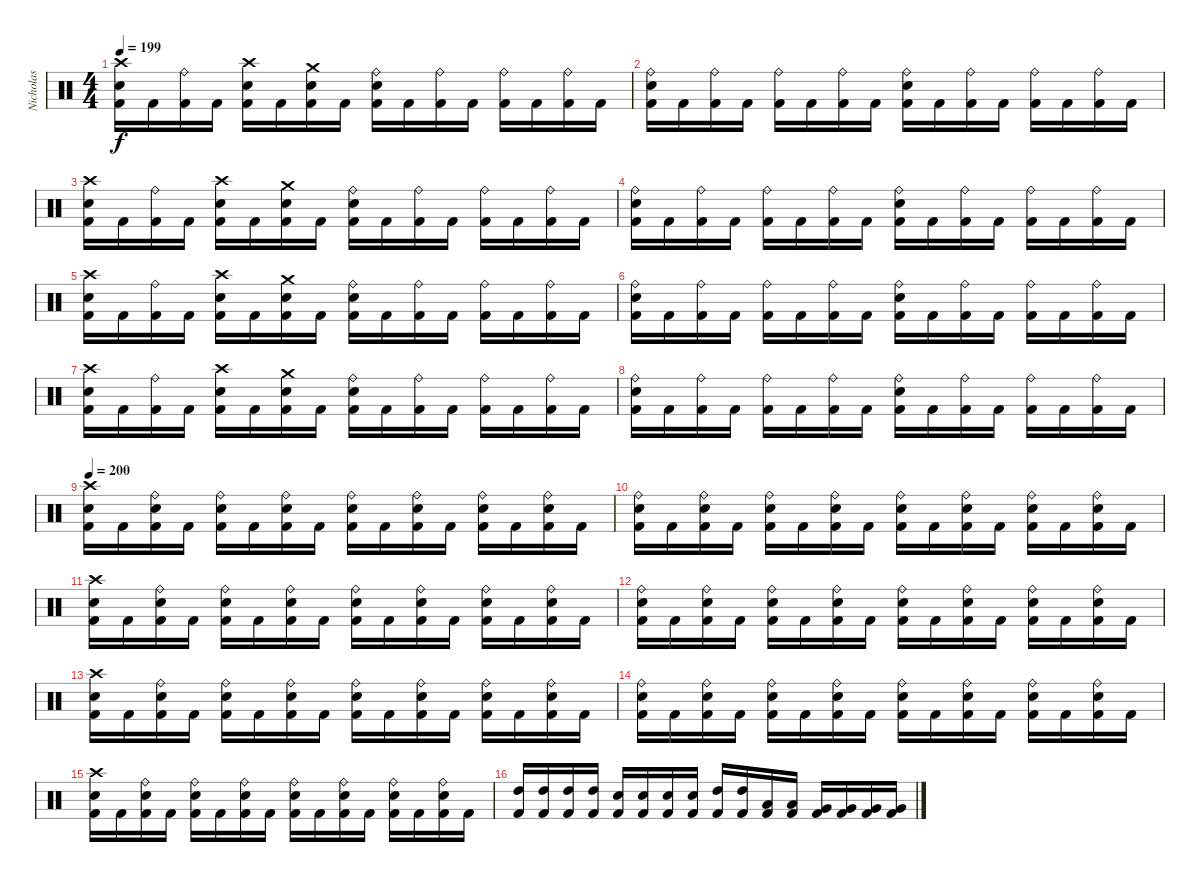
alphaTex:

\track ("Nicholas" "Nicholas") {instrument percussion}
\staff {score}
\articulation defaults
\ts (4 4)
\tempo 199
\clef neutral
\ks c
("Crash high (hit)" "Electric Snare (hit)" "Kick (hit) 2").16{dy f} "Kick (hit) 2".16 ("Ride (bell)" "Kick (hit) 2").16 "Kick (hit) 2".16 ("Crash high (hit)" "Electric Snare (hit)" "Kick (hit) 2").16 "Kick (hit) 2".16 ("Crash medium (hit)" "Electric Snare (hit)" "Kick (hit) 2").16 "Kick (hit) 2".16 ("Ride (bell)" "Electric Snare (hit)" "Kick (hit) 2").16 "Kick (hit) 2".16 ("Ride (bell)" "Kick (hit) 2").16 "Kick (hit) 2".16 ("Ride (bell)" "Kick (hit) 2").16 "Kick (hit) 2".16 ("Ride (bell)" "Kick (hit) 2").16 "Kick (hit) 2".16 |
("Ride (bell)" "Electric Snare (hit)" "Kick (hit) 2").16 "Kick (hit) 2".16 ("Ride (bell)" "Kick (hit) 2").16 "Kick (hit) 2".16 ("Ride (bell)" "Kick (hit) 2").16 "Kick (hit) 2".16 ("Ride (bell)" "Kick (hit) 2").16 "Kick (hit) 2".16 ("Ride (bell)" "Electric Snare (hit)" "Kick (hit) 2").16 "Kick (hit) 2".16 ("Ride (bell)" "Kick (hit) 2").16 "Kick (hit) 2".16 ("Ride (bell)" "Kick (hit) 2").16 "Kick (hit) 2".16 ("Ride (bell)" "Kick (hit) 2").16 "Kick (hit) 2".16 |
("Crash high (hit)" "Electric Snare (hit)" "Kick (hit) 2").16 "Kick (hit) 2".16 ("Ride (bell)" "Kick (hit) 2").16 "Kick (hit) 2".16 ("Crash high (hit)" "Electric Snare (hit)" "Kick (hit) 2").16 "Kick (hit) 2".16 ("Crash medium (hit)" "Electric Snare (hit)" "Kick (hit) 2").16 "Kick (hit) 2".16 ("Ride (bell)" "Electric Snare (hit)" "Kick (hit) 2").16 "Kick (hit) 2".16 ("Ride (bell)" "Kick (hit) 2").16 "Kick (hit) 2".16 ("Ride (bell)" "Kick (hit) 2").16 "Kick (hit) 2".16 ("Ride (bell)" "Kick (hit) 2").16 "Kick (hit) 2".16 |
("Ride (bell)" "Electric Snare (hit)" "Kick (hit) 2").16 "Kick (hit) 2".16 ("Ride (bell)" "Kick (hit) 2").16 "Kick (hit) 2".16 ("Ride (bell)" "Kick (hit) 2").16 "Kick (hit) 2".16 ("Ride (bell)" "Kick (hit) 2").16 "Kick (hit) 2".16 ("Ride (bell)" "Electric Snare (hit)" "Kick (hit) 2").16 "Kick (hit) 2".16 ("Ride (bell)" "Kick (hit) 2").16 "Kick (hit) 2".16 ("Ride (bell)" "Kick (hit) 2").16 "Kick (hit) 2".16 ("Ride (bell)" "Kick (hit) 2").16 "Kick (hit) 2".16 |
("Crash high (hit)" "Electric Snare (hit)" "Kick (hit) 2").16 "Kick (hit) 2".16 ("Ride (bell)" "Kick (hit) 2").16 "Kick (hit) 2".16 ("Crash high (hit)" "Electric Snare (hit)" "Kick (hit) 2").16 "Kick (hit) 2".16 ("Crash medium (hit)" "Electric Snare (hit)" "Kick (hit) 2").16 "Kick (hit) 2".16 ("Ride (bell)" "Electric Snare (hit)" "Kick (hit) 2").16 "Kick (hit) 2".16 ("Ride (bell)" "Kick (hit) 2").16 "Kick (hit) 2".16 ("Ride (bell)" "Kick (hit) 2").16 "Kick (hit) 2".16 ("Ride (bell)" "Kick (hit) 2").16 "Kick (hit) 2".16 |
("Ride (bell)" "Electric Snare (hit)" "Kick (hit) 2").16 "Kick (hit) 2".16 ("Ride (bell)" "Kick (hit) 2").16 "Kick (hit) 2".16 ("Ride (bell)" "Kick (hit) 2").16 "Kick (hit) 2".16 ("Ride (bell)" "Kick (hit) 2").16 "Kick (hit) 2".16 ("Ride (bell)" "Electric Snare (hit)" "Kick (hit) 2").16 "Kick (hit) 2".16 ("Ride (bell)" "Kick (hit) 2").16 "Kick (hit) 2".16 ("Ride (bell)" "Kick (hit) 2").16 "Kick (hit) 2".16 ("Ride (bell)" "Kick (hit) 2").16 "Kick (hit) 2".16 |
("Crash high (hit)" "Electric Snare (hit)" "Kick (hit) 2").16 "Kick (hit) 2".16 ("Ride (bell)" "Kick (hit) 2").16 "Kick (hit) 2".16 ("Crash high (hit)" "Electric Snare (hit)" "Kick (hit) 2").16 "Kick (hit) 2".16 ("Crash medium (hit)" "Electric Snare (hit)" "Kick (hit) 2").16 "Kick (hit) 2".16 ("Ride (bell)" "Electric Snare (hit)" "Kick (hit) 2").16 "Kick (hit) 2".16 ("Ride (bell)" "Kick (hit) 2").16 "Kick (hit) 2".16 ("Ride (bell)" "Kick (hit) 2").16 "Kick (hit) 2".16 ("Ride (bell)" "Kick (hit) 2").16 "Kick (hit) 2".16 |
("Ride (bell)" "Electric Snare (hit)" "Kick (hit) 2").16 "Kick (hit) 2".16 ("Ride (bell)" "Kick (hit) 2").16 "Kick (hit) 2".16 ("Ride (bell)" "Kick (hit) 2").16 "Kick (hit) 2".16 ("Ride (bell)" "Kick (hit) 2").16 "Kick (hit) 2".16 ("Ride (bell)" "Electric Snare (hit)" "Kick (hit) 2").16 "Kick (hit) 2".16 ("Ride (bell)" "Kick (hit) 2").16 "Kick (hit) 2".16 ("Ride (bell)" "Kick (hit) 2").16 "Kick (hit) 2".16 ("Ride (bell)" "Kick (hit) 2").16 "Kick (hit) 2".16 |
\tempo 200
("Crash high (hit)" "Electric Snare (hit)" "Kick (hit) 2").16 "Kick (hit) 2".16 ("Ride (bell)" "Electric Snare (hit)" "Kick (hit) 2").16 "Kick (hit) 2".16 ("Ride (bell)" "Electric Snare (hit)" "Kick (hit) 2").16 "Kick (hit) 2".16 ("Ride (bell)" "Electric Snare (hit)" "Kick (hit) 2").16 "Kick (hit) 2".16 ("Ride (bell)" "Electric Snare (hit)" "Kick (hit) 2").16 "Kick (hit) 2".16 ("Ride (bell)" "Electric Snare (hit)" "Kick (hit) 2").16 "Kick (hit) 2".16 ("Ride (bell)" "Electric Snare (hit)" "Kick (hit) 2").16 "Kick (hit) 2".16 ("Ride (bell)" "Electric Snare (hit)" "Kick (hit) 2").16 "Kick (hit) 2".16 |
("Ride (bell)" "Electric Snare (hit)" "Kick (hit) 2").16 "Kick (hit) 2".16 ("Ride (bell)" "Electric Snare (hit)" "Kick (hit) 2").16 "Kick (hit) 2".16 ("Ride (bell)" "Electric Snare (hit)" "Kick (hit) 2").16 "Kick (hit) 2".16 ("Ride (bell)" "Electric Snare (hit)" "Kick (hit) 2").16 "Kick (hit) 2".16 ("Ride (bell)" "Electric Snare (hit)" "Kick (hit) 2").16 "Kick (hit) 2".16 ("Ride (bell)" "Electric Snare (hit)" "Kick (hit) 2").16 "Kick (hit) 2".16 ("Ride (bell)" "Electric Snare (hit)" "Kick (hit) 2").16 "Kick (hit) 2".16 ("Ride (bell)" "Electric Snare (hit)" "Kick (hit) 2").16 "Kick (hit) 2".16 |
("Crash high (hit)" "Electric Snare (hit)" "Kick (hit) 2").16 "Kick (hit) 2".16 ("Ride (bell)" "Electric Snare (hit)" "Kick (hit) 2").16 "Kick (hit) 2".16 ("Ride (bell)" "Electric Snare (hit)" "Kick (hit) 2").16 "Kick (hit) 2".16 ("Ride (bell)" "Electric Snare (hit)" "Kick (hit) 2").16 "Kick (hit) 2".16 ("Ride (bell)" "Electric Snare (hit)" "Kick (hit) 2").16 "Kick (hit) 2".16 ("Ride (bell)" "Electric Snare (hit)" "Kick (hit) 2").16 "Kick (hit) 2".16 ("Ride (bell)" "Electric Snare (hit)" "Kick (hit) 2").16 "Kick (hit) 2".16 ("Ride (bell)" "Electric Snare (hit)" "Kick (hit) 2").16 "Kick (hit) 2".16 |
("Ride (bell)" "Electric Snare (hit)" "Kick (hit) 2").16 "Kick (hit) 2".16 ("Ride (bell)" "Electric Snare (hit)" "Kick (hit) 2").16 "Kick (hit) 2".16 ("Ride (bell)" "Electric Snare (hit)" "Kick (hit) 2").16 "Kick (hit) 2".16 ("Ride (bell)" "Electric Snare (hit)" "Kick (hit) 2").16 "Kick (hit) 2".16 ("Ride (bell)" "Electric Snare (hit)" "Kick (hit) 2").16 "Kick (hit) 2".16 ("Ride (bell)" "Electric Snare (hit)" "Kick (hit) 2").16 "Kick (hit) 2".16 ("Ride (bell)" "Electric Snare (hit)" "Kick (hit) 2").16 "Kick (hit) 2".16 ("Ride (bell)" "Electric Snare (hit)" "Kick (hit) 2").16 "Kick (hit) 2".16 |
("Crash high (hit)" "Electric Snare (hit)" "Kick (hit) 2").16 "Kick (hit) 2".16 ("Ride (bell)" "Electric Snare (hit)" "Kick (hit) 2").16 "Kick (hit) 2".16 ("Ride (bell)" "Electric Snare (hit)" "Kick (hit) 2").16 "Kick (hit) 2".16 ("Ride (bell)" "Electric Snare (hit)" "Kick (hit) 2").16 "Kick (hit) 2".16 ("Ride (bell)" "Electric Snare (hit)" "Kick (hit) 2").16 "Kick (hit) 2".16 ("Ride (bell)" "Electric Snare (hit)" "Kick (hit) 2").16 "Kick (hit) 2".16 ("Ride (bell)" "Electric Snare (hit)" "Kick (hit) 2").16 "Kick (hit) 2".16 ("Ride (bell)" "Electric Snare (hit)" "Kick (hit) 2").16 "Kick (hit) 2".16 |
("Ride (bell)" "Electric Snare (hit)" "Kick (hit) 2").16 "Kick (hit) 2".16 ("Ride (bell)" "Electric Snare (hit)" "Kick (hit) 2").16 "Kick (hit) 2".16 ("Ride (bell)" "Electric Snare (hit)" "Kick (hit) 2").16 "Kick (hit) 2".16 ("Ride (bell)" "Electric Snare (hit)" "Kick (hit) 2").16 "Kick (hit) 2".16 ("Ride (bell)" "Electric Snare (hit)" "Kick (hit) 2").16 "Kick (hit) 2".16 ("Ride (bell)" "Electric Snare (hit)" "Kick (hit) 2").16 "Kick (hit) 2".16 ("Ride (bell)" "Electric Snare (hit)" "Kick (hit) 2").16 "Kick (hit) 2".16 ("Ride (bell)" "Electric Snare (hit)" "Kick (hit) 2").16 "Kick (hit) 2".16 |
("Crash high (hit)" "Electric Snare (hit)" "Kick (hit) 2").16 "Kick (hit) 2".16 ("Ride (bell)" "Electric Snare (hit)" "Kick (hit) 2").16 "Kick (hit) 2".16 ("Ride (bell)" "Electric Snare (hit)" "Kick (hit) 2").16 "Kick (hit) 2".16 ("Ride (bell)" "Electric Snare (hit)" "Kick (hit) 2").16 "Kick (hit) 2".16 ("Ride (bell)" "Electric Snare (hit)" "Kick (hit) 2").16 "Kick (hit) 2".16 ("Ride (bell)" "Electric Snare (hit)" "Kick (hit) 2").16 "Kick (hit) 2".16 ("Ride (bell)" "Electric Snare (hit)" "Kick (hit) 2").16 "Kick (hit) 2".16 ("Ride (bell)" "Electric Snare (hit)" "Kick (hit) 2").16 "Kick (hit) 2".16 |
("High Tom (hit)" "Kick (hit) 2").16 ("High Tom (hit)" "Kick (hit) 2").16 ("High Tom (hit)" "Kick (hit) 2").16 ("High Tom (hit)" "Kick (hit) 2").16 ("Electric Snare (hit)" "Kick (hit) 2").16 ("Electric Snare (hit)" "Kick (hit) 2").16 ("Electric Snare (hit)" "Kick (hit) 2").16 ("Electric Snare (hit)" "Kick (hit) 2").16 ("High Tom (hit)" "Kick (hit) 2").16 ("High Tom (hit)" "Kick (hit) 2").16 ("Low Tom (hit)" "Kick (hit) 2").16 ("Low Tom (hit)" "Kick (hit) 2").16 ("Very Low Tom (hit)" "Kick (hit) 2").16 ("Very Low Tom (hit)" "Kick (hit) 2").16 ("Very Low Tom (hit)" "Kick (hit) 2").16 ("Very Low Tom (hit)" "Kick (hit) 2").16
